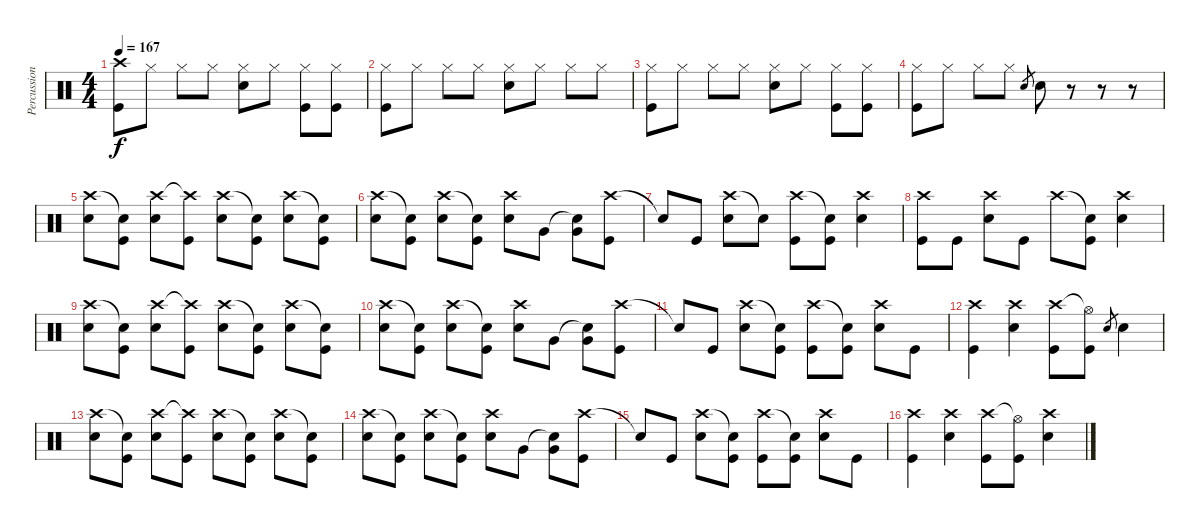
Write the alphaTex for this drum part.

\track ("Percussion" "Percussion") {instrument percussion}
\staff {score}
\articulation defaults
\ts (4 4)
\tempo 167
\clef neutral
\ks c
("Crash high (hit)" "Kick (hit)").8{dy f} "Hi-Hat (closed)".8 "Hi-Hat (closed)".8 "Hi-Hat (closed)".8 ("Hi-Hat (closed)" "Electric Snare (hit)").8 "Hi-Hat (closed)".8 ("Hi-Hat (closed)" "Kick (hit)").8 ("Hi-Hat (closed)" "Kick (hit)").8 |
("Hi-Hat (closed)" "Kick (hit)").8 "Hi-Hat (closed)".8 "Hi-Hat (closed)".8 "Hi-Hat (closed)".8 ("Hi-Hat (closed)" "Electric Snare (hit)").8 "Hi-Hat (closed)".8 "Hi-Hat (closed)".8 "Hi-Hat (closed)".8 |
("Hi-Hat (closed)" "Kick (hit)").8 "Hi-Hat (closed)".8 "Hi-Hat (closed)".8 "Hi-Hat (closed)".8 ("Hi-Hat (closed)" "Electric Snare (hit)").8 "Hi-Hat (closed)".8 ("Hi-Hat (closed)" "Kick (hit)").8 ("Hi-Hat (closed)" "Kick (hit)").8 |
("Hi-Hat (closed)" "Kick (hit)").8 "Hi-Hat (closed)".8 "Hi-Hat (closed)".8 "Hi-Hat (closed)".8 "Electric Snare (hit)".8{gr} "Electric Snare (hit)".8 r.8 r.8 r.8 |
("Crash high (hit)" "Electric Snare (hit)").8 ("Snare (hit)"{t} "Kick (hit)").8 ("Crash high (hit)" "Electric Snare (hit)").8 ("Crash high (hit)"{t} "Kick (hit)").8 ("Crash high (hit)" "Electric Snare (hit)").8 ("Snare (hit)"{t} "Kick (hit)").8 ("Crash high (hit)" "Electric Snare (hit)").8 ("Snare (hit)"{t} "Kick (hit)").8 |
("Crash high (hit)" "Electric Snare (hit)").8 ("Snare (hit)"{t} "Kick (hit)").8 ("Crash high (hit)" "Electric Snare (hit)").8 ("Snare (hit)"{t} "Kick (hit)").8 ("Crash high (hit)" "Electric Snare (hit)").8 "Very Low Tom (hit)".8 ("Snare (hit)"{t} "Very Low Tom (hit)").8 ("Crash high (hit)" "Kick (hit)").8 |
"Snare (hit)"{t}.8 "Kick (hit)".8 ("Crash high (hit)" "Electric Snare (hit)").8 "Snare (hit)"{t}.8 ("Crash high (hit)" "Kick (hit)").8 ("Snare (hit)"{t} "Kick (hit)").8 ("Crash high (hit)" "Electric Snare (hit)").4 |
("Crash high (hit)" "Kick (hit)").8 "Kick (hit)".8 ("Crash high (hit)" "Electric Snare (hit)").8 "Kick (hit)".8 "Crash high (hit)".8 ("Snare (hit)"{t} "Kick (hit)").8 ("Crash high (hit)" "Electric Snare (hit)").4 |
("Crash high (hit)" "Electric Snare (hit)").8 ("Snare (hit)"{t} "Kick (hit)").8 ("Crash high (hit)" "Electric Snare (hit)").8 ("Crash high (hit)"{t} "Kick (hit)").8 ("Crash high (hit)" "Electric Snare (hit)").8 ("Snare (hit)"{t} "Kick (hit)").8 ("Crash high (hit)" "Electric Snare (hit)").8 ("Snare (hit)"{t} "Kick (hit)").8 |
("Crash high (hit)" "Electric Snare (hit)").8 ("Snare (hit)"{t} "Kick (hit)").8 ("Crash high (hit)" "Electric Snare (hit)").8 ("Snare (hit)"{t} "Kick (hit)").8 ("Crash high (hit)" "Electric Snare (hit)").8 "Very Low Tom (hit)".8 ("Snare (hit)"{t} "Very Low Tom (hit)").8 ("Crash high (hit)" "Kick (hit)").8 |
"Snare (hit)"{t}.8 "Kick (hit)".8 ("Crash high (hit)" "Electric Snare (hit)").8 ("Snare (hit)"{t} "Kick (hit)").8 ("Crash high (hit)" "Kick (hit)").8 ("Snare (hit)"{t} "Kick (hit)").8 ("Crash high (hit)" "Electric Snare (hit)").8 "Kick (hit)".8 |
("Crash high (hit)" "Kick (hit)").4 ("Crash high (hit)" "Electric Snare (hit)").4 ("Crash high (hit)" "Kick (hit)").8 ("Hi-Hat (open)"{t} "Kick (hit)").8 "Electric Snare (hit)".8{gr} "Electric Snare (hit)".4 |
("Crash high (hit)" "Electric Snare (hit)").8 ("Snare (hit)"{t} "Kick (hit)").8 ("Crash high (hit)" "Electric Snare (hit)").8 ("Crash high (hit)"{t} "Kick (hit)").8 ("Crash high (hit)" "Electric Snare (hit)").8 ("Snare (hit)"{t} "Kick (hit)").8 ("Crash high (hit)" "Electric Snare (hit)").8 ("Snare (hit)"{t} "Kick (hit)").8 |
("Crash high (hit)" "Electric Snare (hit)").8 ("Snare (hit)"{t} "Kick (hit)").8 ("Crash high (hit)" "Electric Snare (hit)").8 ("Snare (hit)"{t} "Kick (hit)").8 ("Crash high (hit)" "Electric Snare (hit)").8 "Very Low Tom (hit)".8 ("Snare (hit)"{t} "Very Low Tom (hit)").8 ("Crash high (hit)" "Kick (hit)").8 |
"Snare (hit)"{t}.8 "Kick (hit)".8 ("Crash high (hit)" "Electric Snare (hit)").8 ("Snare (hit)"{t} "Kick (hit)").8 ("Crash high (hit)" "Kick (hit)").8 ("Snare (hit)"{t} "Kick (hit)").8 ("Crash high (hit)" "Electric Snare (hit)").8 "Kick (hit)".8 |
("Crash high (hit)" "Kick (hit)").4 ("Crash high (hit)" "Electric Snare (hit)").4 ("Crash high (hit)" "Kick (hit)").8 ("Hi-Hat (open)"{t} "Kick (hit)").8 ("Crash high (hit)" "Electric Snare (hit)").4
